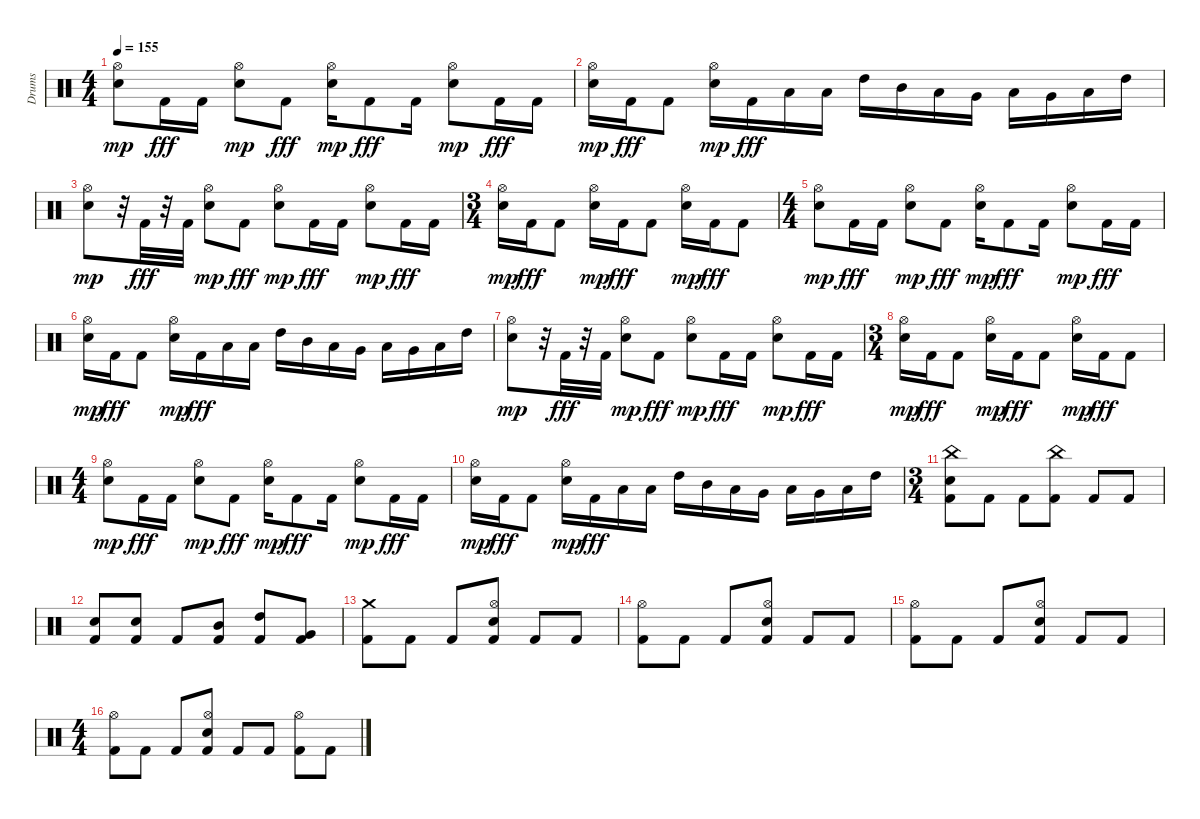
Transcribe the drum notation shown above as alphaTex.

\track ("Drums" "Drums") {instrument percussion}
\staff {score}
\articulation defaults
\ts (4 4)
\tempo 155
\clef neutral
\ks c
("Electric Snare (hit)" "Hi-Hat (open)").8{dy mp} "Kick (hit) 2".16{dy fff} "Kick (hit) 2".16 ("Electric Snare (hit)" "Hi-Hat (open)").8{dy mp} "Kick (hit) 2".8{dy fff} ("Electric Snare (hit)" "Hi-Hat (open)").16{dy mp} "Kick (hit) 2".8{dy fff} "Kick (hit) 2".16 ("Electric Snare (hit)" "Hi-Hat (open)").8{dy mp} "Kick (hit) 2".16{dy fff} "Kick (hit) 2".16 |
("Electric Snare (hit)" "Hi-Hat (open)").16{dy mp} "Kick (hit) 2".16{dy fff} "Kick (hit) 2".8 ("Electric Snare (hit)" "Hi-Hat (open)").16{dy mp} "Kick (hit) 2".16{dy fff} "Low Tom (hit)".16 "Low Floor Tom (hit)".16 "High Tom (hit)".16 "Mid Tom (hit)".16 "Low Tom (hit)".16 "Very Low Tom (hit)".16 "Low Tom (hit)".16 "Very Low Tom (hit)".16 "Low Floor Tom (hit)".16 "High Tom (hit)".16 |
("Electric Snare (hit)" "Hi-Hat (open)").8{dy mp} r.32 "Kick (hit) 2".32{dy fff} r.32 "Kick (hit) 2".32 ("Electric Snare (hit)" "Hi-Hat (open)").8{dy mp} "Kick (hit) 2".8{dy fff} ("Electric Snare (hit)" "Hi-Hat (open)").8{dy mp} "Kick (hit) 2".16{dy fff} "Kick (hit) 2".16 ("Electric Snare (hit)" "Hi-Hat (open)").8{dy mp} "Kick (hit) 2".16{dy fff} "Kick (hit) 2".16 |
\ts (3 4)
("Electric Snare (hit)" "Hi-Hat (open)").16{dy mp} "Kick (hit) 2".16{dy fff} "Kick (hit) 2".8 ("Electric Snare (hit)" "Hi-Hat (open)").16{dy mp} "Kick (hit) 2".16{dy fff} "Kick (hit) 2".8 ("Electric Snare (hit)" "Hi-Hat (open)").16{dy mp} "Kick (hit) 2".16{dy fff} "Kick (hit) 2".8 |
\ts (4 4)
("Electric Snare (hit)" "Hi-Hat (open)").8{dy mp} "Kick (hit) 2".16{dy fff} "Kick (hit) 2".16 ("Electric Snare (hit)" "Hi-Hat (open)").8{dy mp} "Kick (hit) 2".8{dy fff} ("Electric Snare (hit)" "Hi-Hat (open)").16{dy mp} "Kick (hit) 2".8{dy fff} "Kick (hit) 2".16 ("Electric Snare (hit)" "Hi-Hat (open)").8{dy mp} "Kick (hit) 2".16{dy fff} "Kick (hit) 2".16 |
("Electric Snare (hit)" "Hi-Hat (open)").16{dy mp} "Kick (hit) 2".16{dy fff} "Kick (hit) 2".8 ("Electric Snare (hit)" "Hi-Hat (open)").16{dy mp} "Kick (hit) 2".16{dy fff} "Low Tom (hit)".16 "Low Floor Tom (hit)".16 "High Tom (hit)".16 "Mid Tom (hit)".16 "Low Tom (hit)".16 "Very Low Tom (hit)".16 "Low Tom (hit)".16 "Very Low Tom (hit)".16 "Low Floor Tom (hit)".16 "High Tom (hit)".16 |
("Electric Snare (hit)" "Hi-Hat (open)").8{dy mp} r.32 "Kick (hit) 2".32{dy fff} r.32 "Kick (hit) 2".32 ("Electric Snare (hit)" "Hi-Hat (open)").8{dy mp} "Kick (hit) 2".8{dy fff} ("Electric Snare (hit)" "Hi-Hat (open)").8{dy mp} "Kick (hit) 2".16{dy fff} "Kick (hit) 2".16 ("Electric Snare (hit)" "Hi-Hat (open)").8{dy mp} "Kick (hit) 2".16{dy fff} "Kick (hit) 2".16 |
\ts (3 4)
("Electric Snare (hit)" "Hi-Hat (open)").16{dy mp} "Kick (hit) 2".16{dy fff} "Kick (hit) 2".8 ("Electric Snare (hit)" "Hi-Hat (open)").16{dy mp} "Kick (hit) 2".16{dy fff} "Kick (hit) 2".8 ("Electric Snare (hit)" "Hi-Hat (open)").16{dy mp} "Kick (hit) 2".16{dy fff} "Kick (hit) 2".8 |
\ts (4 4)
("Electric Snare (hit)" "Hi-Hat (open)").8{dy mp} "Kick (hit) 2".16{dy fff} "Kick (hit) 2".16 ("Electric Snare (hit)" "Hi-Hat (open)").8{dy mp} "Kick (hit) 2".8{dy fff} ("Electric Snare (hit)" "Hi-Hat (open)").16{dy mp} "Kick (hit) 2".8{dy fff} "Kick (hit) 2".16 ("Electric Snare (hit)" "Hi-Hat (open)").8{dy mp} "Kick (hit) 2".16{dy fff} "Kick (hit) 2".16 |
("Electric Snare (hit)" "Hi-Hat (open)").16{dy mp} "Kick (hit) 2".16{dy fff} "Kick (hit) 2".8 ("Electric Snare (hit)" "Hi-Hat (open)").16{dy mp} "Kick (hit) 2".16{dy fff} "Low Tom (hit)".16 "Low Floor Tom (hit)".16 "High Tom (hit)".16 "Mid Tom (hit)".16 "Low Tom (hit)".16 "Very Low Tom (hit)".16 "Low Tom (hit)".16 "Very Low Tom (hit)".16 "Low Floor Tom (hit)".16 "High Tom (hit)".16 |
\ts (3 4)
("Electric Snare (hit)" "China (hit)" "Kick (hit) 2").8 "Kick (hit) 2".8 "Kick (hit) 2".8 ("China (hit)" "Kick (hit) 2").8 "Kick (hit) 2".8 "Kick (hit) 2".8 |
("Electric Snare (hit)" "Kick (hit) 2").8 ("Electric Snare (hit)" "Kick (hit) 2").8 "Kick (hit) 2".8 ("Mid Tom (hit)" "Kick (hit) 2").8 ("High Tom (hit)" "Kick (hit) 2").8 ("Very Low Tom (hit)" "Kick (hit) 2").8 |
("Crash medium (hit)" "Kick (hit) 2").8 "Kick (hit) 2".8 "Kick (hit) 2".8 ("Electric Snare (hit)" "Hi-Hat (open)" "Kick (hit) 2").8 "Kick (hit) 2".8 "Kick (hit) 2".8 |
("Hi-Hat (open)" "Kick (hit) 2").8 "Kick (hit) 2".8 "Kick (hit) 2".8 ("Electric Snare (hit)" "Hi-Hat (open)" "Kick (hit) 2").8 "Kick (hit) 2".8 "Kick (hit) 2".8 |
("Hi-Hat (open)" "Kick (hit) 2").8 "Kick (hit) 2".8 "Kick (hit) 2".8 ("Electric Snare (hit)" "Hi-Hat (open)" "Kick (hit) 2").8 "Kick (hit) 2".8 "Kick (hit) 2".8 |
\ts (4 4)
("Hi-Hat (open)" "Kick (hit) 2").8 "Kick (hit) 2".8 "Kick (hit) 2".8 ("Electric Snare (hit)" "Hi-Hat (open)" "Kick (hit) 2").8 "Kick (hit) 2".8 "Kick (hit) 2".8 ("Hi-Hat (open)" "Kick (hit) 2").8 "Kick (hit) 2".8
